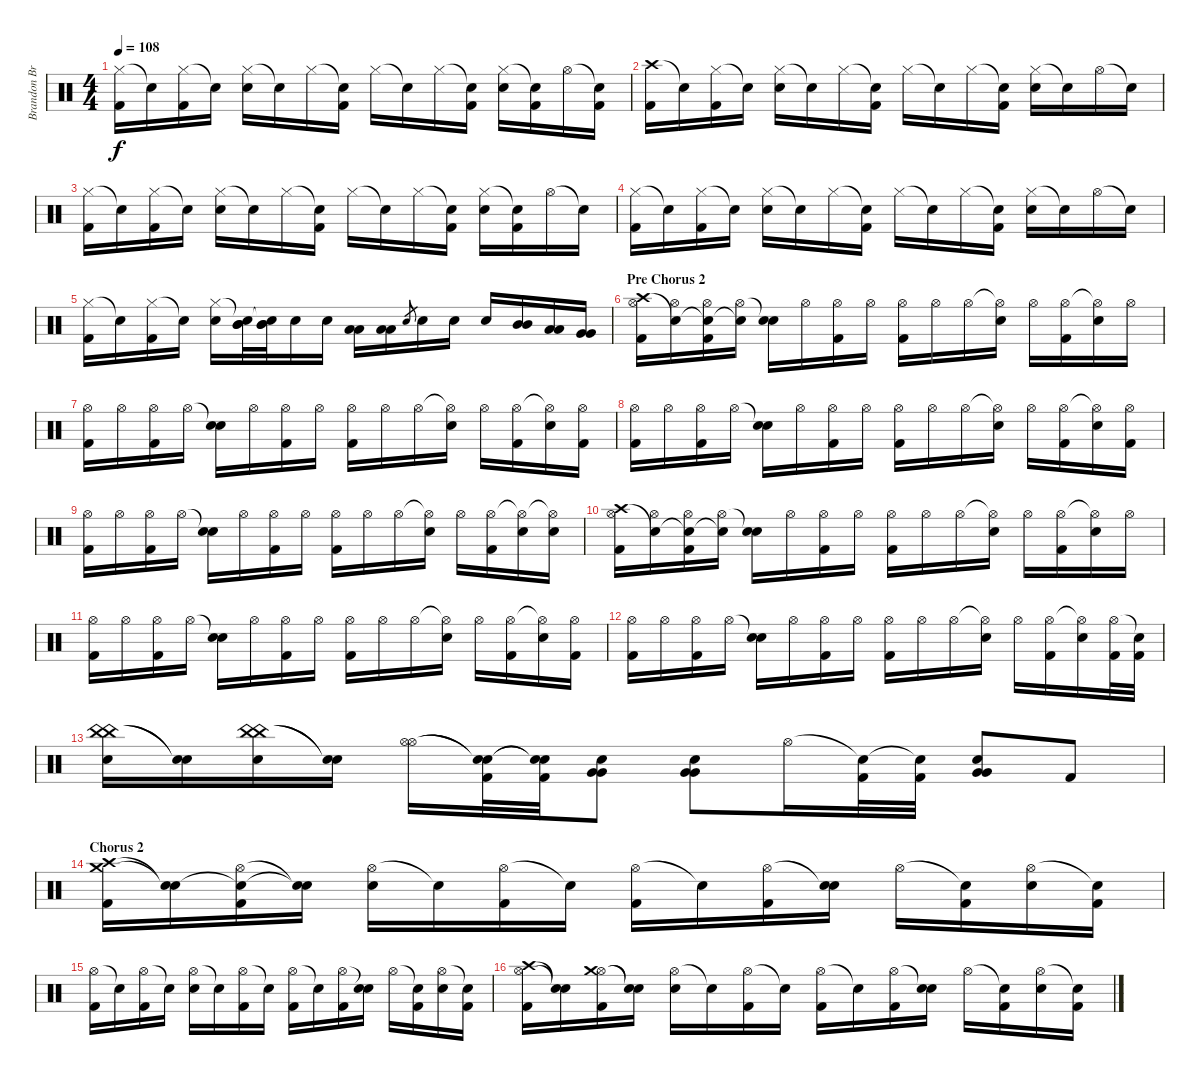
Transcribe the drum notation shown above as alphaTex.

\track ("Brandon Brown (Drums)" "Brandon Br") {instrument percussion}
\staff {score}
\articulation defaults
\ts (4 4)
\tempo 108
\clef neutral
\ks c
("Hi-Hat (closed)" "Kick (hit) 2").16{dy f} "Snare (hit)"{t}.16 ("Hi-Hat (closed)" "Kick (hit) 2").16 "Snare (hit)"{t}.16 ("Hi-Hat (closed)" "Electric Snare (hit)").16 "Snare (hit)"{t}.16 "Hi-Hat (closed)".16 ("Snare (hit)"{t} "Kick (hit) 2").16 "Hi-Hat (closed)".16 "Snare (hit)"{t}.16 "Hi-Hat (closed)".16 ("Snare (hit)"{t} "Kick (hit) 2").16 ("Hi-Hat (closed)" "Electric Snare (hit)").16 ("Snare (hit)"{t} "Kick (hit) 2").16 "Hi-Hat (open)".16 ("Snare (hit)"{t} "Kick (hit) 2").16 |
("Crash high (hit)" "Kick (hit) 2").16 "Snare (hit)"{t}.16 ("Hi-Hat (closed)" "Kick (hit) 2").16 "Snare (hit)"{t}.16 ("Hi-Hat (closed)" "Electric Snare (hit)").16 "Snare (hit)"{t}.16 "Hi-Hat (closed)".16 ("Snare (hit)"{t} "Kick (hit) 2").16 "Hi-Hat (closed)".16 "Snare (hit)"{t}.16 "Hi-Hat (closed)".16 ("Snare (hit)"{t} "Kick (hit) 2").16 ("Hi-Hat (closed)" "Electric Snare (hit)").16 "Snare (hit)"{t}.16 "Hi-Hat (open)".16 "Snare (hit)"{t}.16 |
("Hi-Hat (closed)" "Kick (hit) 2").16 "Snare (hit)"{t}.16 ("Hi-Hat (closed)" "Kick (hit) 2").16 "Snare (hit)"{t}.16 ("Hi-Hat (closed)" "Electric Snare (hit)").16 "Snare (hit)"{t}.16 "Hi-Hat (closed)".16 ("Snare (hit)"{t} "Kick (hit) 2").16 "Hi-Hat (closed)".16 "Snare (hit)"{t}.16 "Hi-Hat (closed)".16 ("Snare (hit)"{t} "Kick (hit) 2").16 ("Hi-Hat (closed)" "Electric Snare (hit)").16 ("Snare (hit)"{t} "Kick (hit) 2").16 "Hi-Hat (open)".16 "Snare (hit)"{t}.16 |
("Hi-Hat (closed)" "Kick (hit) 2").16 "Snare (hit)"{t}.16 ("Hi-Hat (closed)" "Kick (hit) 2").16 "Snare (hit)"{t}.16 ("Hi-Hat (closed)" "Electric Snare (hit)").16 "Snare (hit)"{t}.16 "Hi-Hat (closed)".16 ("Snare (hit)"{t} "Kick (hit) 2").16 "Hi-Hat (closed)".16 "Snare (hit)"{t}.16 "Hi-Hat (closed)".16 ("Snare (hit)"{t} "Kick (hit) 2").16 ("Hi-Hat (closed)" "Electric Snare (hit)").16 "Snare (hit)"{t}.16 "Hi-Hat (open)".16 "Snare (hit)"{t}.16 |
("Hi-Hat (closed)" "Kick (hit) 2").16 "Snare (hit)"{t}.16 ("Hi-Hat (closed)" "Kick (hit) 2").16 "Snare (hit)"{t}.16 ("Hi-Hat (closed)" "Electric Snare (hit)").16 ("Snare (hit)"{t} "Mid Tom (hit)" "Mid Tom (hit)").32 ("Snare (hit)"{t} "Mid Tom (hit)" "Mid Tom (hit)").32 "Electric Snare (hit)".16 "Electric Snare (hit)".16 ("Low Tom (hit)" "Low Tom (hit)").16 ("Low Tom (hit)" "Low Tom (hit)").16 "Electric Snare (hit)".8{gr} "Electric Snare (hit)".16 "Electric Snare (hit)".16 "Electric Snare (hit)".16 ("Mid Tom (hit)" "Mid Tom (hit)").16 ("Low Tom (hit)" "Low Tom (hit)").16 ("Very Low Tom (hit)" "Very Low Tom (hit)").16 |
\section ("" "Pre Chorus 2")
("Hi-Hat (open)" "Crash high (hit)" "Kick (hit) 2").16 ("Hi-Hat (open)" "Snare (hit)"{t}).16 ("Hi-Hat (open)" "Snare (hit)"{t} "Kick (hit) 2").16 ("Hi-Hat (open)" "Snare (hit)"{t}).16 ("Snare (hit)"{t} "Electric Snare (hit)").16 "Hi-Hat (open)".16 ("Hi-Hat (open)" "Kick (hit) 2").16 "Hi-Hat (open)".16 ("Hi-Hat (open)" "Kick (hit) 2").16 "Hi-Hat (open)".16 "Hi-Hat (open)".16 ("Hi-Hat (open)"{t} "Electric Snare (hit)").16 "Hi-Hat (open)".16 ("Hi-Hat (open)" "Kick (hit) 2").16 ("Hi-Hat (open)"{t} "Electric Snare (hit)").16 "Hi-Hat (open)".16 |
("Hi-Hat (open)" "Kick (hit) 2").16 "Hi-Hat (open)".16 ("Hi-Hat (open)" "Kick (hit) 2").16 "Hi-Hat (open)".16 ("Snare (hit)"{t} "Electric Snare (hit)").16 "Hi-Hat (open)".16 ("Hi-Hat (open)" "Kick (hit) 2").16 "Hi-Hat (open)".16 ("Hi-Hat (open)" "Kick (hit) 2").16 "Hi-Hat (open)".16 "Hi-Hat (open)".16 ("Hi-Hat (open)"{t} "Electric Snare (hit)").16 "Hi-Hat (open)".16 ("Hi-Hat (open)" "Kick (hit) 2").16 ("Hi-Hat (open)"{t} "Electric Snare (hit)").16 ("Hi-Hat (open)" "Kick (hit) 2").16 |
("Hi-Hat (open)" "Kick (hit) 2").16 "Hi-Hat (open)".16 ("Hi-Hat (open)" "Kick (hit) 2").16 "Hi-Hat (open)".16 ("Snare (hit)"{t} "Electric Snare (hit)").16 "Hi-Hat (open)".16 ("Hi-Hat (open)" "Kick (hit) 2").16 "Hi-Hat (open)".16 ("Hi-Hat (open)" "Kick (hit) 2").16 "Hi-Hat (open)".16 "Hi-Hat (open)".16 ("Hi-Hat (open)"{t} "Electric Snare (hit)").16 "Hi-Hat (open)".16 ("Hi-Hat (open)" "Kick (hit) 2").16 ("Hi-Hat (open)"{t} "Electric Snare (hit)").16 ("Hi-Hat (open)" "Kick (hit) 2").16 |
("Hi-Hat (open)" "Kick (hit) 2").16 "Hi-Hat (open)".16 ("Hi-Hat (open)" "Kick (hit) 2").16 "Hi-Hat (open)".16 ("Snare (hit)"{t} "Electric Snare (hit)").16 "Hi-Hat (open)".16 ("Hi-Hat (open)" "Kick (hit) 2").16 "Hi-Hat (open)".16 ("Hi-Hat (open)" "Kick (hit) 2").16 "Hi-Hat (open)".16 "Hi-Hat (open)".16 ("Hi-Hat (open)"{t} "Electric Snare (hit)").16 "Hi-Hat (open)".16 ("Hi-Hat (open)" "Kick (hit) 2").16 ("Hi-Hat (open)"{t} "Electric Snare (hit)").16 ("Hi-Hat (open)"{t} "Electric Snare (hit)").16 |
("Hi-Hat (open)" "Crash high (hit)" "Kick (hit) 2").16 ("Hi-Hat (open)" "Snare (hit)"{t}).16 ("Hi-Hat (open)" "Snare (hit)"{t} "Kick (hit) 2").16 ("Hi-Hat (open)" "Snare (hit)"{t}).16 ("Snare (hit)"{t} "Electric Snare (hit)").16 "Hi-Hat (open)".16 ("Hi-Hat (open)" "Kick (hit) 2").16 "Hi-Hat (open)".16 ("Hi-Hat (open)" "Kick (hit) 2").16 "Hi-Hat (open)".16 "Hi-Hat (open)".16 ("Hi-Hat (open)"{t} "Electric Snare (hit)").16 "Hi-Hat (open)".16 ("Hi-Hat (open)" "Kick (hit) 2").16 ("Hi-Hat (open)"{t} "Electric Snare (hit)").16 "Hi-Hat (open)".16 |
("Hi-Hat (open)" "Kick (hit) 2").16 "Hi-Hat (open)".16 ("Hi-Hat (open)" "Kick (hit) 2").16 "Hi-Hat (open)".16 ("Snare (hit)"{t} "Electric Snare (hit)").16 "Hi-Hat (open)".16 ("Hi-Hat (open)" "Kick (hit) 2").16 "Hi-Hat (open)".16 ("Hi-Hat (open)" "Kick (hit) 2").16 "Hi-Hat (open)".16 "Hi-Hat (open)".16 ("Hi-Hat (open)"{t} "Electric Snare (hit)").16 "Hi-Hat (open)".16 ("Hi-Hat (open)" "Kick (hit) 2").16 ("Hi-Hat (open)"{t} "Electric Snare (hit)").16 ("Hi-Hat (open)" "Kick (hit) 2").16 |
("Hi-Hat (open)" "Kick (hit) 2").16 "Hi-Hat (open)".16 ("Hi-Hat (open)" "Kick (hit) 2").16 "Hi-Hat (open)".16 ("Snare (hit)"{t} "Electric Snare (hit)").16 "Hi-Hat (open)".16 ("Hi-Hat (open)" "Kick (hit) 2").16 "Hi-Hat (open)".16 ("Hi-Hat (open)" "Kick (hit) 2").16 "Hi-Hat (open)".16 "Hi-Hat (open)".16 ("Hi-Hat (open)"{t} "Electric Snare (hit)").16 "Hi-Hat (open)".16 ("Hi-Hat (open)" "Kick (hit) 2").16 ("Hi-Hat (open)"{t} "Electric Snare (hit)").16 ("Hi-Hat (open)" "Kick (hit) 2").32 ("Snare (hit)"{t} "Kick (hit) 2").32 |
("China (hit)" "China (hit)" "Electric Snare (hit)").16 ("Snare (hit)"{t} "Snare (hit)"{t}).16 ("China (hit)" "China (hit)" "Electric Snare (hit)").16 ("Snare (hit)"{t} "Snare (hit)"{t}).16 ("Hi-Hat (open)" "Hi-Hat (open)").16 ("Snare (hit)"{t} "Snare (hit)"{t} "Kick (hit) 2").32 ("Snare (hit)"{t} "Snare (hit)"{t} "Kick (hit) 2").32 ("Electric Snare (hit)" "Very Low Tom (hit)" "Very Low Tom (hit)").8 ("Electric Snare (hit)" "Very Low Tom (hit)" "Very Low Tom (hit)").8 "Hi-Hat (open)".16 ("Snare (hit)"{t} "Kick (hit) 2").32 ("Snare (hit)"{t} "Kick (hit) 2").32 ("Electric Snare (hit)" "Very Low Tom (hit)" "Very Low Tom (hit)").8 "Kick (hit) 2".8 |
\section ("" "Chorus 2")
("Crash medium (hit)" "Crash high (hit)" "Kick (hit) 2").16 ("Snare (hit)"{t} "Snare (hit)"{t}).16 ("Hi-Hat (open)" "Snare (hit)"{t} "Kick (hit) 2").16 ("Snare (hit)"{t} "Snare (hit)"{t}).16 ("Hi-Hat (open)" "Electric Snare (hit)").16 "Snare (hit)"{t}.16 ("Hi-Hat (open)" "Kick (hit) 2").16 "Snare (hit)"{t}.16 ("Hi-Hat (open)" "Kick (hit) 2").16 "Snare (hit)"{t}.16 ("Hi-Hat (open)" "Kick (hit) 2").16 ("Snare (hit)"{t} "Electric Snare (hit)").16 "Hi-Hat (open)".16 ("Snare (hit)"{t} "Kick (hit) 2").16 ("Hi-Hat (open)" "Electric Snare (hit)").16 ("Snare (hit)"{t} "Kick (hit) 2").16 |
("Hi-Hat (open)" "Kick (hit) 2").16 "Snare (hit)"{t}.16 ("Hi-Hat (open)" "Kick (hit) 2").16 "Snare (hit)"{t}.16 ("Hi-Hat (open)" "Electric Snare (hit)").16 "Snare (hit)"{t}.16 ("Hi-Hat (open)" "Kick (hit) 2").16 "Snare (hit)"{t}.16 ("Hi-Hat (open)" "Kick (hit) 2").16 "Snare (hit)"{t}.16 ("Hi-Hat (open)" "Kick (hit) 2").16 ("Snare (hit)"{t} "Electric Snare (hit)").16 "Hi-Hat (open)".16 ("Snare (hit)"{t} "Kick (hit) 2").16 ("Hi-Hat (open)" "Electric Snare (hit)").16 ("Snare (hit)"{t} "Kick (hit) 2").16 |
("Hi-Hat (open)" "Crash high (hit)" "Kick (hit) 2").16 ("Snare (hit)"{t} "Snare (hit)"{t}).16 ("Hi-Hat (open)" "Crash medium (hit)" "Kick (hit) 2").16 ("Snare (hit)"{t} "Snare (hit)"{t}).16 ("Hi-Hat (open)" "Electric Snare (hit)").16 "Snare (hit)"{t}.16 ("Hi-Hat (open)" "Kick (hit) 2").16 "Snare (hit)"{t}.16 ("Hi-Hat (open)" "Kick (hit) 2").16 "Snare (hit)"{t}.16 ("Hi-Hat (open)" "Kick (hit) 2").16 ("Snare (hit)"{t} "Electric Snare (hit)").16 "Hi-Hat (open)".16 ("Snare (hit)"{t} "Kick (hit) 2").16 ("Hi-Hat (open)" "Electric Snare (hit)").16 ("Snare (hit)"{t} "Kick (hit) 2").16
